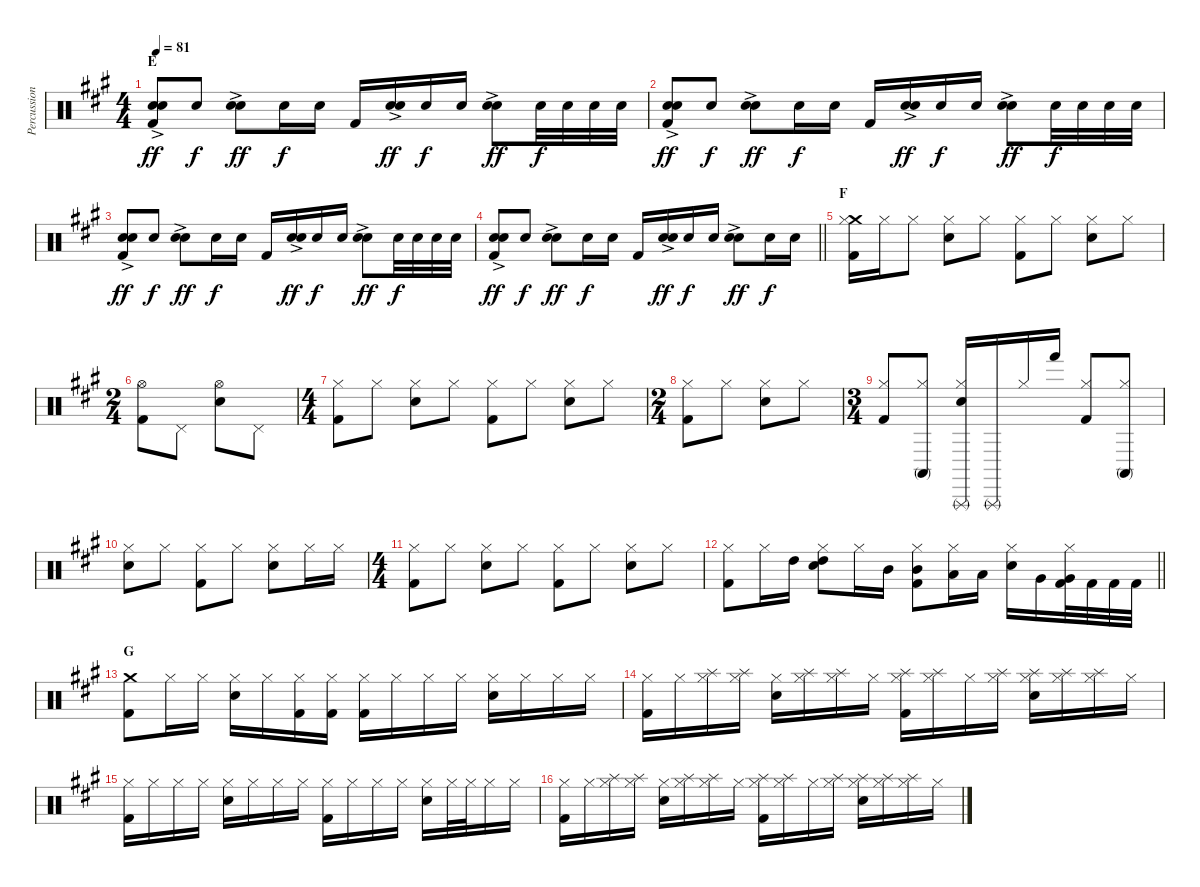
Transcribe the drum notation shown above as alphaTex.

\track ("Percussion" "Percussion") {instrument percussion}
\staff {score}
\articulation defaults
\ts (4 4)
\section ("" "E")
\tempo 81
\clef neutral
\ks f#minor
("Snare (hit) 2"{ac} "Electric Snare (hit)" "Kick (hit) 2").8{dy ff} "Snare (hit) 2".8{dy f} ("Snare (hit) 2"{ac} "Electric Snare (hit)").8{dy ff} "Electric Snare (hit)".16{dy f} "Electric Snare (hit)".16 "Kick (hit) 2".16 ("Snare (hit) 2"{ac} "Electric Snare (hit)").16{dy ff} "Electric Snare (hit)".16{dy f} "Electric Snare (hit)".16 ("Snare (hit) 2"{ac} "Electric Snare (hit)").8{dy ff} "Electric Snare (hit)".32{dy f} "Electric Snare (hit)".32 "Electric Snare (hit)".32 "Electric Snare (hit)".32 |
("Snare (hit) 2"{ac} "Electric Snare (hit)" "Kick (hit) 2").8{dy ff} "Snare (hit) 2".8{dy f} ("Snare (hit) 2"{ac} "Electric Snare (hit)").8{dy ff} "Electric Snare (hit)".16{dy f} "Electric Snare (hit)".16 "Kick (hit) 2".16 ("Snare (hit) 2"{ac} "Electric Snare (hit)").16{dy ff} "Electric Snare (hit)".16{dy f} "Electric Snare (hit)".16 ("Snare (hit) 2"{ac} "Electric Snare (hit)").8{dy ff} "Electric Snare (hit)".32{dy f} "Electric Snare (hit)".32 "Electric Snare (hit)".32 "Electric Snare (hit)".32 |
("Snare (hit) 2"{ac} "Electric Snare (hit)" "Kick (hit) 2").8{dy ff} "Snare (hit) 2".8{dy f} ("Snare (hit) 2"{ac} "Electric Snare (hit)").8{dy ff} "Electric Snare (hit)".16{dy f} "Electric Snare (hit)".16 "Kick (hit) 2".16 ("Snare (hit) 2"{ac} "Electric Snare (hit)").16{dy ff} "Electric Snare (hit)".16{dy f} "Electric Snare (hit)".16 ("Snare (hit) 2"{ac} "Electric Snare (hit)").8{dy ff} "Electric Snare (hit)".32{dy f} "Electric Snare (hit)".32 "Electric Snare (hit)".32 "Electric Snare (hit)".32 |
\barLineRight lightlight
("Snare (hit) 2"{ac} "Electric Snare (hit)" "Kick (hit) 2").8{dy ff} "Snare (hit) 2".8{dy f} ("Snare (hit) 2"{ac} "Electric Snare (hit)").8{dy ff} "Electric Snare (hit)".16{dy f} "Electric Snare (hit)".16 "Kick (hit) 2".16 ("Snare (hit) 2"{ac} "Electric Snare (hit)").16{dy ff} "Electric Snare (hit)".16{dy f} "Electric Snare (hit)".16 ("Snare (hit) 2"{ac} "Electric Snare (hit)").8{dy ff} "Snare (hit) 2".16{dy f} "Snare (hit) 2".16 |
\section ("" "F")
("Crash medium (hit)" "Hi-Hat (closed)" "Kick (hit) 2").16 "Hi-Hat (closed)".16 "Hi-Hat (closed)".8 ("Hi-Hat (closed)" "Snare (hit) 2").8 "Hi-Hat (closed)".8 ("Hi-Hat (closed)" "Kick (hit) 2").8 "Hi-Hat (closed)".8 ("Hi-Hat (closed)" "Snare (hit) 2").8 "Hi-Hat (closed)".8 |
\ts (2 4)
("Hi-Hat (open)" "Kick (hit) 2").8 "Pedal Hi-Hat (hit)".8 ("Hi-Hat (open)" "Snare (hit) 2").8 "Pedal Hi-Hat (hit)".8 |
\ts (4 4)
("Hi-Hat (closed)" "Kick (hit) 2").8 "Hi-Hat (closed)".8 ("Hi-Hat (closed)" "Snare (hit) 2").8 "Hi-Hat (closed)".8 ("Hi-Hat (closed)" "Kick (hit) 2").8 "Hi-Hat (closed)".8 ("Hi-Hat (closed)" "Snare (hit) 2").8 "Hi-Hat (closed)".8 |
\ts (2 4)
("Hi-Hat (closed)" "Kick (hit) 2").8 "Hi-Hat (closed)".8 ("Hi-Hat (closed)" "Snare (hit) 2").8 "Hi-Hat (closed)".8 |
\ts (3 4)
("Hi-Hat (closed)" "Kick (hit) 2").8 ("Conga high (mute)" "Hi-Hat (closed)").8 ("Triangle (rnute)" "Hi-Hat (closed)" "Snare (hit) 2").16 "Triangle (rnute)".16 "Hi-Hat (closed)".16 "Hand (hit)".16 ("Hi-Hat (closed)" "Kick (hit) 2").8 ("Conga high (mute)" "Hi-Hat (closed)").8 |
("Hi-Hat (closed)" "Snare (hit) 2").8 "Hi-Hat (closed)".8 ("Hi-Hat (closed)" "Kick (hit) 2").8 "Hi-Hat (closed)".8 ("Hi-Hat (closed)" "Snare (hit) 2").8 "Hi-Hat (closed)".16 "Hi-Hat (closed)".16 |
\ts (4 4)
("Hi-Hat (closed)" "Kick (hit) 2").8 "Hi-Hat (closed)".8 ("Hi-Hat (closed)" "Snare (hit) 2").8 "Hi-Hat (closed)".8 ("Hi-Hat (closed)" "Kick (hit) 2").8 "Hi-Hat (closed)".8 ("Hi-Hat (closed)" "Snare (hit) 2").8 "Hi-Hat (closed)".8 |
\barLineRight lightlight
("Hi-Hat (closed)" "Kick (hit) 2").8 "Hi-Hat (closed)".16 "High Tom (hit)".16 ("High Tom (hit)" "Hi-Hat (closed)" "Snare (hit) 2").8 "Hi-Hat (closed)".16 "Mid Tom (hit)".16 ("Mid Tom (hit)" "Hi-Hat (closed)" "Kick (hit) 2").8 ("Low Tom (hit)" "Hi-Hat (closed)").16 "Low Tom (hit)".16 ("Hi-Hat (closed)" "Snare (hit) 2").16 "Very Low Tom (hit)".16 ("Very Low Tom (hit)" "Hi-Hat (closed)" "Kick (hit) 2").32 "Kick (hit) 2".32 "Kick (hit) 2".32 "Kick (hit) 2".32 |
\section ("" "G")
("Crash medium (hit)" "Kick (hit) 2").8 "Hi-Hat (closed)".16 "Hi-Hat (closed)".16 ("Hi-Hat (closed)" "Snare (hit) 2").16 "Hi-Hat (closed)".16 ("Hi-Hat (closed)" "Kick (hit) 2").16 ("Hi-Hat (closed)" "Kick (hit) 2").16 ("Hi-Hat (closed)" "Kick (hit) 2").16 "Hi-Hat (closed)".16 "Hi-Hat (closed)".16 "Hi-Hat (closed)".16 ("Hi-Hat (closed)" "Snare (hit) 2").16 "Hi-Hat (closed)".16 "Hi-Hat (closed)".16 "Hi-Hat (closed)".16 |
("Hi-Hat (closed)" "Kick (hit) 2").16 "Hi-Hat (closed)".16 ("Splash (hit)" "Hi-Hat (closed)").16 ("Splash (hit)" "Hi-Hat (closed)").16 ("Hi-Hat (closed)" "Snare (hit) 2").16 ("Splash (hit)" "Hi-Hat (closed)").16 ("Splash (hit)" "Hi-Hat (closed)").16 "Hi-Hat (closed)".16 ("Splash (hit)" "Hi-Hat (closed)" "Kick (hit) 2").16 ("Splash (hit)" "Hi-Hat (closed)").16 "Hi-Hat (closed)".16 ("Splash (hit)" "Hi-Hat (closed)").16 ("Splash (hit)" "Hi-Hat (closed)" "Snare (hit) 2").16 ("Splash (hit)" "Hi-Hat (closed)").16 ("Splash (hit)" "Hi-Hat (closed)").16 "Hi-Hat (closed)".16 |
("Hi-Hat (closed)" "Kick (hit) 2").16 "Hi-Hat (closed)".16 "Hi-Hat (closed)".16 "Hi-Hat (closed)".16 ("Hi-Hat (closed)" "Snare (hit) 2").16 "Hi-Hat (closed)".16 "Hi-Hat (closed)".16 "Hi-Hat (closed)".16 ("Hi-Hat (closed)" "Kick (hit) 2").16 "Hi-Hat (closed)".16 "Hi-Hat (closed)".16 "Hi-Hat (closed)".16 ("Hi-Hat (closed)" "Snare (hit) 2").16 "Hi-Hat (closed)".32 "Hi-Hat (closed)".32 "Hi-Hat (closed)".16 "Hi-Hat (closed)".16 |
("Hi-Hat (closed)" "Kick (hit) 2").16 "Hi-Hat (closed)".16 ("Splash (hit)" "Hi-Hat (closed)").16 ("Splash (hit)" "Hi-Hat (closed)").16 ("Hi-Hat (closed)" "Snare (hit) 2").16 ("Splash (hit)" "Hi-Hat (closed)").16 ("Splash (hit)" "Hi-Hat (closed)").16 "Hi-Hat (closed)".16 ("Splash (hit)" "Hi-Hat (closed)" "Kick (hit) 2").16 ("Splash (hit)" "Hi-Hat (closed)").16 "Hi-Hat (closed)".16 ("Splash (hit)" "Hi-Hat (closed)").16 ("Splash (hit)" "Hi-Hat (closed)" "Snare (hit) 2").16 ("Splash (hit)" "Hi-Hat (closed)").16 ("Splash (hit)" "Hi-Hat (closed)").16 "Hi-Hat (closed)".16
